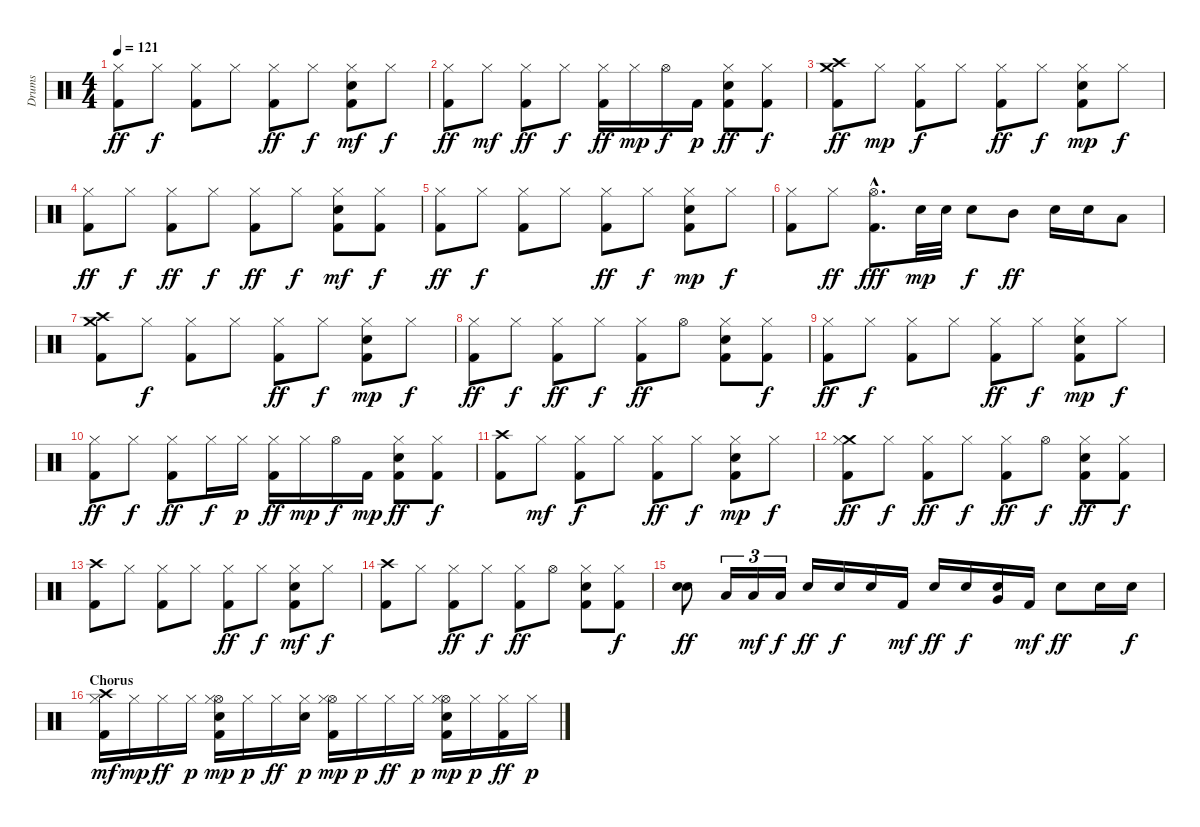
\track ("Drums" "Drums") {instrument percussion}
\staff {score}
\articulation defaults
\ts (4 4)
\tempo 121
\clef neutral
\ks c
("Kick (hit) 2" "Hi-Hat (closed)").8{dy ff} "Hi-Hat (closed)".8{dy f} ("Kick (hit) 2" "Hi-Hat (closed)").8 "Hi-Hat (closed)".8 ("Kick (hit) 2" "Hi-Hat (closed)").8{dy ff} "Hi-Hat (closed)".8{dy f} ("Kick (hit) 2" "Hi-Hat (closed)" "Electric Snare (hit)").8{dy mf} "Hi-Hat (closed)".8{dy f} |
("Kick (hit) 2" "Hi-Hat (closed)").8{dy ff} "Hi-Hat (closed)".8{dy mf} ("Kick (hit) 2" "Hi-Hat (closed)").8{dy ff} "Hi-Hat (closed)".8{dy f} ("Kick (hit) 2" "Hi-Hat (closed)").16{dy ff} "Hi-Hat (closed)".16{dy mp} "Hi-Hat (open)".16{dy f} "Kick (hit) 2".16{dy p} ("Kick (hit) 2" "Hi-Hat (closed)" "Electric Snare (hit)").8{dy ff} ("Kick (hit) 2" "Hi-Hat (closed)").8{dy f} |
("Kick (hit) 2" "Crash high (hit)" "Crash medium (hit)").8{dy ff} "Hi-Hat (closed)".8{dy mp} ("Kick (hit) 2" "Hi-Hat (closed)").8{dy f} "Hi-Hat (closed)".8 ("Kick (hit) 2" "Hi-Hat (closed)").8{dy ff} "Hi-Hat (closed)".8{dy f} ("Kick (hit) 2" "Hi-Hat (closed)" "Electric Snare (hit)").8{dy mp} "Hi-Hat (closed)".8{dy f} |
("Kick (hit) 2" "Hi-Hat (closed)").8{dy ff} "Hi-Hat (closed)".8{dy f} ("Kick (hit) 2" "Hi-Hat (closed)").8{dy ff} "Hi-Hat (closed)".8{dy f} ("Kick (hit) 2" "Hi-Hat (closed)").8{dy ff} "Hi-Hat (closed)".8{dy f} ("Kick (hit) 2" "Hi-Hat (closed)" "Electric Snare (hit)").8{dy mf} ("Kick (hit) 2" "Hi-Hat (closed)").8{dy f} |
("Kick (hit) 2" "Hi-Hat (closed)").8{dy ff} "Hi-Hat (closed)".8{dy f} ("Kick (hit) 2" "Hi-Hat (closed)").8 "Hi-Hat (closed)".8 ("Kick (hit) 2" "Hi-Hat (closed)").8{dy ff} "Hi-Hat (closed)".8{dy f} ("Kick (hit) 2" "Hi-Hat (closed)" "Electric Snare (hit)").8{dy mp} "Hi-Hat (closed)".8{dy f} |
("Kick (hit) 2" "Hi-Hat (closed)").8 "Hi-Hat (closed)".8{dy ff} ("Kick (hit) 2"{hac} "Hi-Hat (open)"{hac}).8{d dy fff} "Electric Snare (hit)".32{dy mp} "Electric Snare (hit)".32 "Snare (hit) 2".8{dy f} "Mid Tom (hit)".8{dy ff} "Snare (hit) 2".16 "Snare (hit) 2".16 "Low Tom (hit)".8 |
("Kick (hit) 2" "Crash high (hit)" "Crash medium (hit)").8 "Hi-Hat (closed)".8{dy f} ("Kick (hit) 2" "Hi-Hat (closed)").8 "Hi-Hat (closed)".8 ("Kick (hit) 2" "Hi-Hat (closed)").8{dy ff} "Hi-Hat (closed)".8{dy f} ("Kick (hit) 2" "Hi-Hat (closed)" "Electric Snare (hit)").8{dy mp} "Hi-Hat (closed)".8{dy f} |
("Kick (hit) 2" "Hi-Hat (closed)").8{dy ff} "Hi-Hat (closed)".8{dy f} ("Kick (hit) 2" "Hi-Hat (closed)").8{dy ff} "Hi-Hat (closed)".8{dy f} ("Kick (hit) 2" "Hi-Hat (closed)").8{dy ff} "Hi-Hat (open)".8 ("Kick (hit) 2" "Hi-Hat (closed)" "Electric Snare (hit)").8 ("Kick (hit) 2" "Hi-Hat (closed)").8{dy f} |
("Kick (hit) 2" "Hi-Hat (closed)").8{dy ff} "Hi-Hat (closed)".8{dy f} ("Kick (hit) 2" "Hi-Hat (closed)").8 "Hi-Hat (closed)".8 ("Kick (hit) 2" "Hi-Hat (closed)").8{dy ff} "Hi-Hat (closed)".8{dy f} ("Kick (hit) 2" "Hi-Hat (closed)" "Electric Snare (hit)").8{dy mp} "Hi-Hat (closed)".8{dy f} |
("Kick (hit) 2" "Hi-Hat (closed)").8{dy ff} "Hi-Hat (closed)".8{dy f} ("Kick (hit) 2" "Hi-Hat (closed)").8{dy ff} "Hi-Hat (closed)".16{dy f} "Hi-Hat (closed)".16{dy p} ("Kick (hit) 2" "Hi-Hat (closed)").16{dy ff} "Hi-Hat (closed)".16{dy mp} "Hi-Hat (open)".16{dy f} "Kick (hit) 2".16{dy mp} ("Kick (hit) 2" "Hi-Hat (closed)" "Electric Snare (hit)").8{dy ff} ("Kick (hit) 2" "Hi-Hat (closed)").8{dy f} |
("Crash high (hit)" "Kick (hit) 2").8 "Hi-Hat (closed)".8{dy mf} ("Kick (hit) 2" "Hi-Hat (closed)").8{dy f} "Hi-Hat (closed)".8 ("Kick (hit) 2" "Hi-Hat (closed)").8{dy ff} "Hi-Hat (closed)".8{dy f} ("Kick (hit) 2" "Hi-Hat (closed)" "Electric Snare (hit)").8{dy mp} "Hi-Hat (closed)".8{dy f} |
("Crash medium (hit)" "Kick (hit) 2" "Hi-Hat (closed)").8{dy ff} "Hi-Hat (closed)".8{dy f} ("Kick (hit) 2" "Hi-Hat (closed)").8{dy ff} "Hi-Hat (closed)".8{dy f} ("Kick (hit) 2" "Hi-Hat (closed)").8{dy ff} "Hi-Hat (open)".8{dy f} ("Kick (hit) 2" "Hi-Hat (closed)" "Electric Snare (hit)").8{dy ff} ("Kick (hit) 2" "Hi-Hat (closed)").8{dy f} |
("Crash high (hit)" "Kick (hit) 2").8 "Hi-Hat (closed)".8 ("Kick (hit) 2" "Hi-Hat (closed)").8 "Hi-Hat (closed)".8 ("Kick (hit) 2" "Hi-Hat (closed)").8{dy ff} "Hi-Hat (closed)".8{dy f} ("Kick (hit) 2" "Hi-Hat (closed)" "Electric Snare (hit)").8{dy mf} "Hi-Hat (closed)".8{dy f} |
("Crash high (hit)" "Kick (hit) 2").8 "Hi-Hat (closed)".8 ("Kick (hit) 2" "Hi-Hat (closed)").8{dy ff} "Hi-Hat (closed)".8{dy f} ("Kick (hit) 2" "Hi-Hat (closed)").8{dy ff} "Hi-Hat (open)".8 ("Kick (hit) 2" "Hi-Hat (closed)" "Electric Snare (hit)").8 ("Kick (hit) 2" "Hi-Hat (closed)").8{dy f} |
("Electric Snare (hit)" "Snare (hit) 2").8{dy ff} "Low Tom (hit)".16{tu (3 2)} "Low Tom (hit)".16{tu (3 2) dy mf} "Low Tom (hit)".16{tu (3 2) dy f} "Snare (hit) 2".16{dy ff} "Snare (hit) 2".16{dy f} "Snare (hit) 2".16 "Kick (hit) 2".16{dy mf} "Snare (hit) 2".16{dy ff} "Electric Snare (hit)".16{dy f} ("Very Low Tom (hit)" "Snare (hit) 2").16 "Kick (hit) 2".16{dy mf} "Snare (hit) 2".8{dy ff} "Snare (hit) 2".16 "Snare (hit) 2".16{dy f} |
\section ("" "Chorus")
("Crash high (hit)" "Kick (hit) 2" "Hi-Hat (closed)").16{dy mf} "Hi-Hat (closed)".16{dy mp} "Hi-Hat (closed)".16{dy ff} "Hi-Hat (closed)".16{dy p} ("Kick (hit) 2" "Hi-Hat (open)" "Electric Snare (hit)" "Hi-Hat (closed)").16{dy mp} "Hi-Hat (closed)".16{dy p} "Hi-Hat (closed)".16{dy ff} ("Electric Snare (hit)" "Hi-Hat (closed)").16{dy p} ("Kick (hit) 2" "Hi-Hat (open)" "Hi-Hat (closed)").16{dy mp} "Hi-Hat (closed)".16{dy p} "Hi-Hat (closed)".16{dy ff} "Hi-Hat (closed)".16{dy p} ("Kick (hit) 2" "Hi-Hat (open)" "Electric Snare (hit)" "Hi-Hat (closed)").16{dy mp} "Hi-Hat (closed)".16{dy p} ("Kick (hit) 2" "Hi-Hat (closed)").16{dy ff} "Hi-Hat (closed)".16{dy p}
